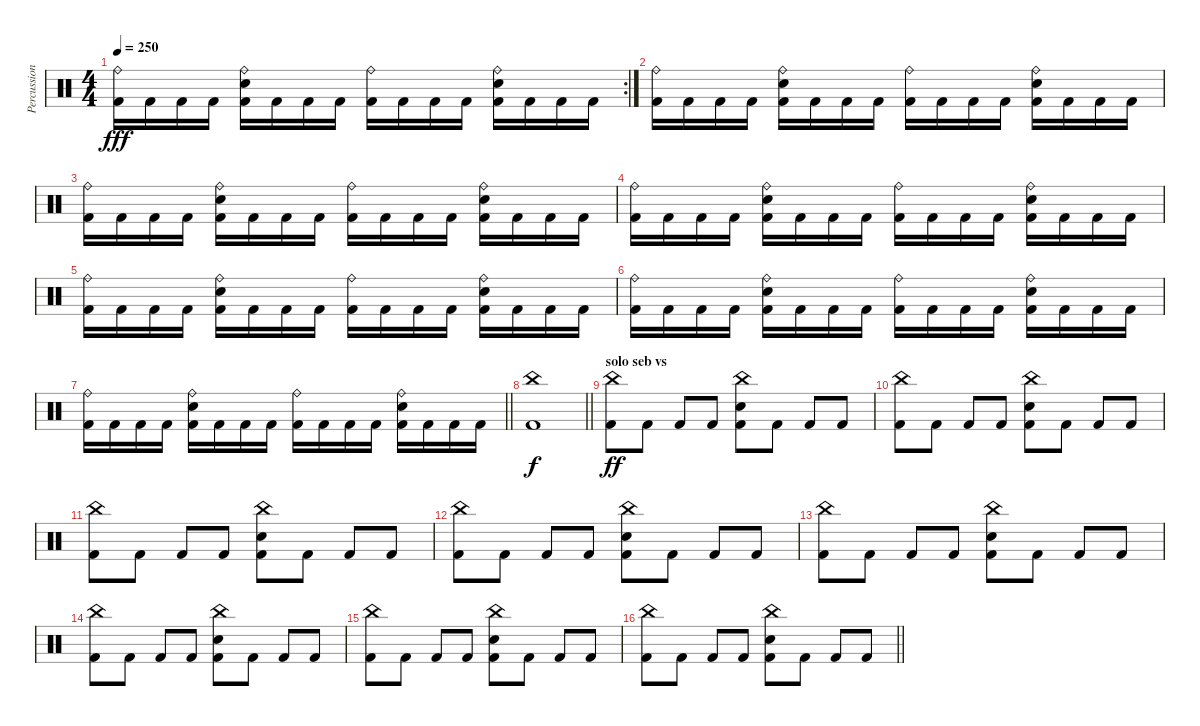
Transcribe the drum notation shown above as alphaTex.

\track ("Percussions" "Percussion") {instrument percussion}
\staff {score}
\articulation defaults
\rc 2
\ts (4 4)
\tempo 250
\clef neutral
\ks c
("Ride (bell)" "Kick (hit) 2").16{dy fff} "Kick (hit) 2".16 "Kick (hit) 2".16 "Kick (hit) 2".16 ("Ride (bell)" "Electric Snare (hit)" "Kick (hit) 2").16 "Kick (hit) 2".16 "Kick (hit) 2".16 "Kick (hit) 2".16 ("Ride (bell)" "Kick (hit) 2").16 "Kick (hit) 2".16 "Kick (hit) 2".16 "Kick (hit) 2".16 ("Ride (bell)" "Electric Snare (hit)" "Kick (hit) 2").16 "Kick (hit) 2".16 "Kick (hit) 2".16 "Kick (hit) 2".16 |
("Ride (bell)" "Kick (hit) 2").16 "Kick (hit) 2".16 "Kick (hit) 2".16 "Kick (hit) 2".16 ("Ride (bell)" "Electric Snare (hit)" "Kick (hit) 2").16 "Kick (hit) 2".16 "Kick (hit) 2".16 "Kick (hit) 2".16 ("Ride (bell)" "Kick (hit) 2").16 "Kick (hit) 2".16 "Kick (hit) 2".16 "Kick (hit) 2".16 ("Ride (bell)" "Electric Snare (hit)" "Kick (hit) 2").16 "Kick (hit) 2".16 "Kick (hit) 2".16 "Kick (hit) 2".16 |
("Ride (bell)" "Kick (hit) 2").16 "Kick (hit) 2".16 "Kick (hit) 2".16 "Kick (hit) 2".16 ("Ride (bell)" "Electric Snare (hit)" "Kick (hit) 2").16 "Kick (hit) 2".16 "Kick (hit) 2".16 "Kick (hit) 2".16 ("Ride (bell)" "Kick (hit) 2").16 "Kick (hit) 2".16 "Kick (hit) 2".16 "Kick (hit) 2".16 ("Ride (bell)" "Electric Snare (hit)" "Kick (hit) 2").16 "Kick (hit) 2".16 "Kick (hit) 2".16 "Kick (hit) 2".16 |
("Ride (bell)" "Kick (hit) 2").16 "Kick (hit) 2".16 "Kick (hit) 2".16 "Kick (hit) 2".16 ("Ride (bell)" "Electric Snare (hit)" "Kick (hit) 2").16 "Kick (hit) 2".16 "Kick (hit) 2".16 "Kick (hit) 2".16 ("Ride (bell)" "Kick (hit) 2").16 "Kick (hit) 2".16 "Kick (hit) 2".16 "Kick (hit) 2".16 ("Ride (bell)" "Electric Snare (hit)" "Kick (hit) 2").16 "Kick (hit) 2".16 "Kick (hit) 2".16 "Kick (hit) 2".16 |
("Ride (bell)" "Kick (hit) 2").16 "Kick (hit) 2".16 "Kick (hit) 2".16 "Kick (hit) 2".16 ("Ride (bell)" "Electric Snare (hit)" "Kick (hit) 2").16 "Kick (hit) 2".16 "Kick (hit) 2".16 "Kick (hit) 2".16 ("Ride (bell)" "Kick (hit) 2").16 "Kick (hit) 2".16 "Kick (hit) 2".16 "Kick (hit) 2".16 ("Ride (bell)" "Electric Snare (hit)" "Kick (hit) 2").16 "Kick (hit) 2".16 "Kick (hit) 2".16 "Kick (hit) 2".16 |
("Ride (bell)" "Kick (hit) 2").16 "Kick (hit) 2".16 "Kick (hit) 2".16 "Kick (hit) 2".16 ("Ride (bell)" "Electric Snare (hit)" "Kick (hit) 2").16 "Kick (hit) 2".16 "Kick (hit) 2".16 "Kick (hit) 2".16 ("Ride (bell)" "Kick (hit) 2").16 "Kick (hit) 2".16 "Kick (hit) 2".16 "Kick (hit) 2".16 ("Ride (bell)" "Electric Snare (hit)" "Kick (hit) 2").16 "Kick (hit) 2".16 "Kick (hit) 2".16 "Kick (hit) 2".16 |
\barLineRight lightlight
("Ride (bell)" "Kick (hit) 2").16 "Kick (hit) 2".16 "Kick (hit) 2".16 "Kick (hit) 2".16 ("Ride (bell)" "Electric Snare (hit)" "Kick (hit) 2").16 "Kick (hit) 2".16 "Kick (hit) 2".16 "Kick (hit) 2".16 ("Ride (bell)" "Kick (hit) 2").16 "Kick (hit) 2".16 "Kick (hit) 2".16 "Kick (hit) 2".16 ("Ride (bell)" "Electric Snare (hit)" "Kick (hit) 2").16 "Kick (hit) 2".16 "Kick (hit) 2".16 "Kick (hit) 2".16 |
\barLineRight lightlight
("China (hit)" "Kick (hit) 2").1{dy f} |
\section ("" "solo seb vs")
("China (hit)" "Kick (hit) 2").8{dy ff} "Kick (hit) 2".8 "Kick (hit) 2".8 "Kick (hit) 2".8 ("China (hit)" "Electric Snare (hit)" "Kick (hit) 2").8 "Kick (hit) 2".8 "Kick (hit) 2".8 "Kick (hit) 2".8 |
("China (hit)" "Kick (hit) 2").8 "Kick (hit) 2".8 "Kick (hit) 2".8 "Kick (hit) 2".8 ("China (hit)" "Electric Snare (hit)" "Kick (hit) 2").8 "Kick (hit) 2".8 "Kick (hit) 2".8 "Kick (hit) 2".8 |
("China (hit)" "Kick (hit) 2").8 "Kick (hit) 2".8 "Kick (hit) 2".8 "Kick (hit) 2".8 ("China (hit)" "Electric Snare (hit)" "Kick (hit) 2").8 "Kick (hit) 2".8 "Kick (hit) 2".8 "Kick (hit) 2".8 |
("China (hit)" "Kick (hit) 2").8 "Kick (hit) 2".8 "Kick (hit) 2".8 "Kick (hit) 2".8 ("China (hit)" "Electric Snare (hit)" "Kick (hit) 2").8 "Kick (hit) 2".8 "Kick (hit) 2".8 "Kick (hit) 2".8 |
("China (hit)" "Kick (hit) 2").8 "Kick (hit) 2".8 "Kick (hit) 2".8 "Kick (hit) 2".8 ("China (hit)" "Electric Snare (hit)" "Kick (hit) 2").8 "Kick (hit) 2".8 "Kick (hit) 2".8 "Kick (hit) 2".8 |
("China (hit)" "Kick (hit) 2").8 "Kick (hit) 2".8 "Kick (hit) 2".8 "Kick (hit) 2".8 ("China (hit)" "Electric Snare (hit)" "Kick (hit) 2").8 "Kick (hit) 2".8 "Kick (hit) 2".8 "Kick (hit) 2".8 |
("China (hit)" "Kick (hit) 2").8 "Kick (hit) 2".8 "Kick (hit) 2".8 "Kick (hit) 2".8 ("China (hit)" "Electric Snare (hit)" "Kick (hit) 2").8 "Kick (hit) 2".8 "Kick (hit) 2".8 "Kick (hit) 2".8 |
\barLineRight lightlight
("China (hit)" "Kick (hit) 2").8 "Kick (hit) 2".8 "Kick (hit) 2".8 "Kick (hit) 2".8 ("China (hit)" "Electric Snare (hit)" "Kick (hit) 2").8 "Kick (hit) 2".8 "Kick (hit) 2".8 "Kick (hit) 2".8
